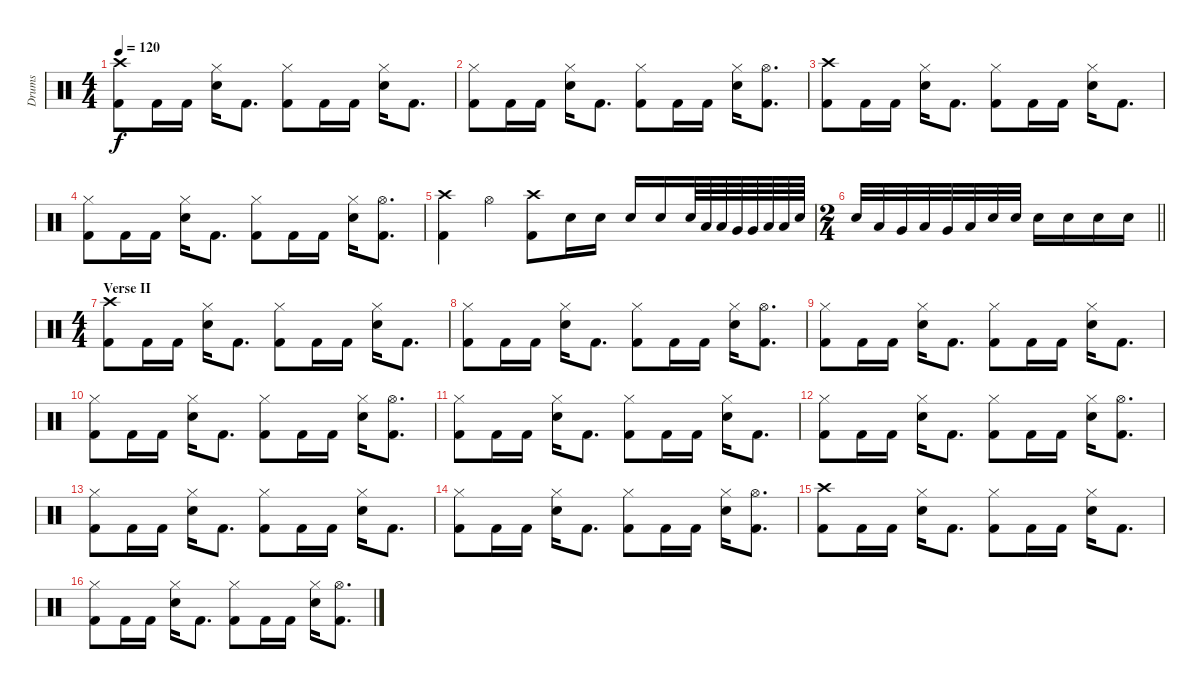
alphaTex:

\track ("Drums" "Drums") {instrument percussion}
\staff {score}
\articulation defaults
\ts (4 4)
\tempo 120
\clef neutral
\ks c
("Crash high (hit)" "Kick (hit) 2").8{dy f} "Kick (hit) 2".16 "Kick (hit) 2".16 ("Hi-Hat (closed)" "Snare (hit) 2").16 "Kick (hit) 2".8{d} ("Hi-Hat (closed)" "Kick (hit) 2").8 "Kick (hit) 2".16 "Kick (hit) 2".16 ("Hi-Hat (closed)" "Snare (hit) 2").16 "Kick (hit) 2".8{d} |
("Hi-Hat (closed)" "Kick (hit) 2").8 "Kick (hit) 2".16 "Kick (hit) 2".16 ("Hi-Hat (closed)" "Snare (hit) 2").16 "Kick (hit) 2".8{d} ("Hi-Hat (closed)" "Kick (hit) 2").8 "Kick (hit) 2".16 "Kick (hit) 2".16 ("Hi-Hat (closed)" "Snare (hit) 2").16 ("Hi-Hat (open)" "Kick (hit) 2").8{d} |
("Crash high (hit)" "Kick (hit) 2").8 "Kick (hit) 2".16 "Kick (hit) 2".16 ("Hi-Hat (closed)" "Snare (hit) 2").16 "Kick (hit) 2".8{d} ("Hi-Hat (closed)" "Kick (hit) 2").8 "Kick (hit) 2".16 "Kick (hit) 2".16 ("Hi-Hat (closed)" "Snare (hit) 2").16 "Kick (hit) 2".8{d} |
("Hi-Hat (closed)" "Kick (hit) 2").8 "Kick (hit) 2".16 "Kick (hit) 2".16 ("Hi-Hat (closed)" "Snare (hit) 2").16 "Kick (hit) 2".8{d} ("Hi-Hat (closed)" "Kick (hit) 2").8 "Kick (hit) 2".16 "Kick (hit) 2".16 ("Hi-Hat (closed)" "Snare (hit) 2").16 ("Hi-Hat (open)" "Kick (hit) 2").8{d} |
("Crash high (hit)" "Kick (hit) 2").4 "Hi-Hat (open)".4 ("Crash high (hit)" "Kick (hit) 2").8 "Snare (hit) 2".16 "Snare (hit) 2".16 "Snare (hit) 2".16 "Snare (hit) 2".16 "Snare (hit) 2".64 "Low Tom (hit)".64 "Low Tom (hit)".64 "Very Low Tom (hit)".64 "Very Low Tom (hit)".64 "Low Floor Tom (hit)".64 "Low Floor Tom (hit)".64 "Snare (hit) 2".64 |
\ts (2 4)
\barLineRight lightlight "Electric Snare (hit)".32 "Low Tom (hit)".32 "Very Low Tom (hit)".32 "Low Floor Tom (hit)".32 "Very Low Tom (hit)".32 "Low Tom (hit)".32 "Electric Snare (hit)".32 "Electric Snare (hit)".32 "Snare (hit) 2".16 "Snare (hit) 2".16 "Snare (hit) 2".16 "Snare (hit) 2".16
|
\ts (4 4)
\section ("" "Verse II")
("Crash high (hit)" "Kick (hit) 2").8 "Kick (hit) 2".16 "Kick (hit) 2".16 ("Hi-Hat (closed)" "Snare (hit) 2").16 "Kick (hit) 2".8{d} ("Hi-Hat (closed)" "Kick (hit) 2").8 "Kick (hit) 2".16 "Kick (hit) 2".16 ("Hi-Hat (closed)" "Snare (hit) 2").16 "Kick (hit) 2".8{d} |
("Hi-Hat (closed)" "Kick (hit) 2").8 "Kick (hit) 2".16 "Kick (hit) 2".16 ("Hi-Hat (closed)" "Snare (hit) 2").16 "Kick (hit) 2".8{d} ("Hi-Hat (closed)" "Kick (hit) 2").8 "Kick (hit) 2".16 "Kick (hit) 2".16 ("Hi-Hat (closed)" "Snare (hit) 2").16 ("Hi-Hat (open)" "Kick (hit) 2").8{d} |
("Hi-Hat (closed)" "Kick (hit) 2").8 "Kick (hit) 2".16 "Kick (hit) 2".16 ("Hi-Hat (closed)" "Snare (hit) 2").16 "Kick (hit) 2".8{d} ("Hi-Hat (closed)" "Kick (hit) 2").8 "Kick (hit) 2".16 "Kick (hit) 2".16 ("Hi-Hat (closed)" "Snare (hit) 2").16 "Kick (hit) 2".8{d} |
("Hi-Hat (closed)" "Kick (hit) 2").8 "Kick (hit) 2".16 "Kick (hit) 2".16 ("Hi-Hat (closed)" "Snare (hit) 2").16 "Kick (hit) 2".8{d} ("Hi-Hat (closed)" "Kick (hit) 2").8 "Kick (hit) 2".16 "Kick (hit) 2".16 ("Hi-Hat (closed)" "Snare (hit) 2").16 ("Hi-Hat (open)" "Kick (hit) 2").8{d} |
("Hi-Hat (closed)" "Kick (hit) 2").8 "Kick (hit) 2".16 "Kick (hit) 2".16 ("Hi-Hat (closed)" "Snare (hit) 2").16 "Kick (hit) 2".8{d} ("Hi-Hat (closed)" "Kick (hit) 2").8 "Kick (hit) 2".16 "Kick (hit) 2".16 ("Hi-Hat (closed)" "Snare (hit) 2").16 "Kick (hit) 2".8{d} |
("Hi-Hat (closed)" "Kick (hit) 2").8 "Kick (hit) 2".16 "Kick (hit) 2".16 ("Hi-Hat (closed)" "Snare (hit) 2").16 "Kick (hit) 2".8{d} ("Hi-Hat (closed)" "Kick (hit) 2").8 "Kick (hit) 2".16 "Kick (hit) 2".16 ("Hi-Hat (closed)" "Snare (hit) 2").16 ("Hi-Hat (open)" "Kick (hit) 2").8{d} |
("Hi-Hat (closed)" "Kick (hit) 2").8 "Kick (hit) 2".16 "Kick (hit) 2".16 ("Hi-Hat (closed)" "Snare (hit) 2").16 "Kick (hit) 2".8{d} ("Hi-Hat (closed)" "Kick (hit) 2").8 "Kick (hit) 2".16 "Kick (hit) 2".16 ("Hi-Hat (closed)" "Snare (hit) 2").16 "Kick (hit) 2".8{d} |
("Hi-Hat (closed)" "Kick (hit) 2").8 "Kick (hit) 2".16 "Kick (hit) 2".16 ("Hi-Hat (closed)" "Snare (hit) 2").16 "Kick (hit) 2".8{d} ("Hi-Hat (closed)" "Kick (hit) 2").8 "Kick (hit) 2".16 "Kick (hit) 2".16 ("Hi-Hat (closed)" "Snare (hit) 2").16 ("Hi-Hat (open)" "Kick (hit) 2").8{d} |
("Crash high (hit)" "Kick (hit) 2").8 "Kick (hit) 2".16 "Kick (hit) 2".16 ("Hi-Hat (closed)" "Snare (hit) 2").16 "Kick (hit) 2".8{d} ("Hi-Hat (closed)" "Kick (hit) 2").8 "Kick (hit) 2".16 "Kick (hit) 2".16 ("Hi-Hat (closed)" "Snare (hit) 2").16 "Kick (hit) 2".8{d} |
("Hi-Hat (closed)" "Kick (hit) 2").8 "Kick (hit) 2".16 "Kick (hit) 2".16 ("Hi-Hat (closed)" "Snare (hit) 2").16 "Kick (hit) 2".8{d} ("Hi-Hat (closed)" "Kick (hit) 2").8 "Kick (hit) 2".16 "Kick (hit) 2".16 ("Hi-Hat (closed)" "Snare (hit) 2").16 ("Hi-Hat (open)" "Kick (hit) 2").8{d}
